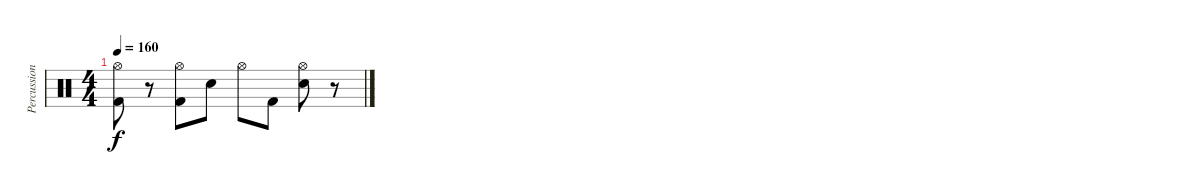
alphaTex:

\track ("Percussion" "Percussion") {instrument percussion}
\staff {score}
\articulation defaults
\ts (4 4)
\tempo 160
\clef neutral
\ks c
("Hi-Hat (open)" "Kick (hit) 2").8{dy f} r.8 ("Hi-Hat (open)" "Kick (hit) 2").8 "Electric Snare (hit)".8 "Hi-Hat (open)".8 "Kick (hit) 2".8 ("Hi-Hat (open)" "Electric Snare (hit)").8 r.8
